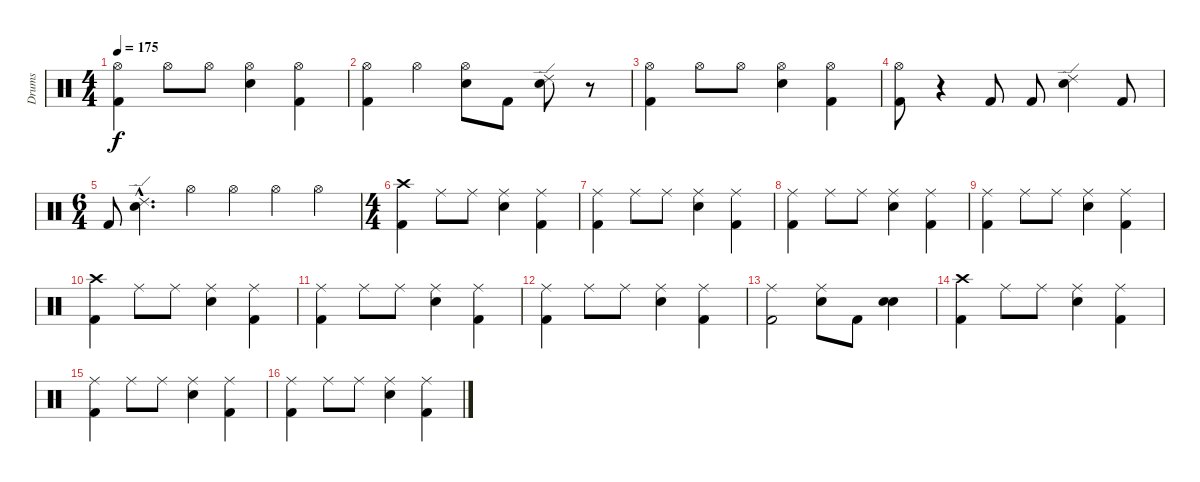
\track ("Drums" "Drums") {instrument percussion}
\staff {score}
\articulation defaults
\ts (4 4)
\tempo 175
\clef neutral
\ks c
("Hi-Hat (open)" "Kick (hit) 2").4{dy f} "Hi-Hat (open)".8 "Hi-Hat (open)".8 ("Hi-Hat (open)" "Snare (hit) 2").4 ("Hi-Hat (open)" "Kick (hit) 2").4 |
("Hi-Hat (open)" "Kick (hit) 2").4 "Hi-Hat (open)".4 ("Hi-Hat (open)" "Snare (hit) 2").8 "Kick (hit) 2".8 ("Ride (edge) 2"{pm} "Snare (hit) 2"{pm}).8 r.8 |
("Hi-Hat (open)" "Kick (hit) 2").4 "Hi-Hat (open)".8 "Hi-Hat (open)".8 ("Hi-Hat (open)" "Snare (hit) 2").4 ("Hi-Hat (open)" "Kick (hit) 2").4 |
("Hi-Hat (open)" "Kick (hit) 2").8 r.4 "Kick (hit) 2".8 "Kick (hit) 2".8 ("Ride (edge) 2" "Snare (hit) 2").4 "Kick (hit) 2".8 |
\ts (6 4)
"Kick (hit) 2".8 ("Ride (edge) 2"{hac} "Snare (hit) 2"{hac}).4{d} "Hi-Hat (open)".4 "Hi-Hat (open)".4 "Hi-Hat (open)".4 "Hi-Hat (open)".4 |
\ts (4 4)
("Crash high (hit)" "Kick (hit) 2").4 "Ride (middle)".8 "Ride (middle)".8 ("Ride (middle)" "Snare (hit) 2").4 ("Ride (middle)" "Kick (hit) 2").4 |
("Ride (middle)" "Kick (hit) 2").4 "Ride (middle)".8 "Ride (middle)".8 ("Ride (middle)" "Snare (hit) 2").4 ("Ride (middle)" "Kick (hit) 2").4 |
("Ride (middle)" "Kick (hit) 2").4 "Ride (middle)".8 "Ride (middle)".8 ("Ride (middle)" "Snare (hit) 2").4 ("Ride (middle)" "Kick (hit) 2").4 |
("Ride (middle)" "Kick (hit) 2").4 "Ride (middle)".8 "Ride (middle)".8 ("Ride (middle)" "Snare (hit) 2").4 ("Ride (middle)" "Kick (hit) 2").4 |
("Crash high (hit)" "Kick (hit) 2").4 "Ride (middle)".8 "Ride (middle)".8 ("Ride (middle)" "Snare (hit) 2").4 ("Ride (middle)" "Kick (hit) 2").4 |
("Ride (middle)" "Kick (hit) 2").4 "Ride (middle)".8 "Ride (middle)".8 ("Ride (middle)" "Snare (hit) 2").4 ("Ride (middle)" "Kick (hit) 2").4 |
("Ride (middle)" "Kick (hit) 2").4 "Ride (middle)".8 "Ride (middle)".8 ("Ride (middle)" "Snare (hit) 2").4 ("Ride (middle)" "Kick (hit) 2").4 |
("Ride (middle)" "Kick (hit) 2").2 ("Ride (middle)" "Snare (hit) 2").8 "Kick (hit) 2".8 ("Snare (hit)" "Snare (hit) 2").4 |
("Crash high (hit)" "Kick (hit) 2").4 "Ride (middle)".8 "Ride (middle)".8 ("Ride (middle)" "Snare (hit) 2").4 ("Ride (middle)" "Kick (hit) 2").4 |
("Ride (middle)" "Kick (hit) 2").4 "Ride (middle)".8 "Ride (middle)".8 ("Ride (middle)" "Snare (hit) 2").4 ("Ride (middle)" "Kick (hit) 2").4 |
("Ride (middle)" "Kick (hit) 2").4 "Ride (middle)".8 "Ride (middle)".8 ("Ride (middle)" "Snare (hit) 2").4 ("Ride (middle)" "Kick (hit) 2").4
